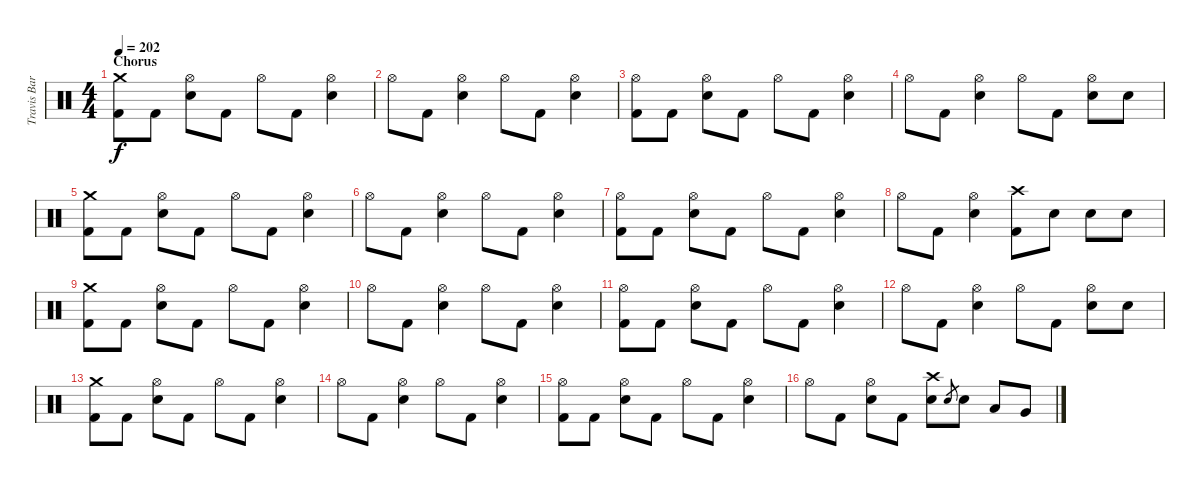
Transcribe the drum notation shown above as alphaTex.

\track ("Travis Barker - Drums" "Travis Bar") {instrument percussion}
\staff {score}
\articulation defaults
\ts (4 4)
\section ("" "Chorus")
\tempo 202
\clef neutral
\ks c
("Crash medium (hit)" "Kick (hit) 2").8{dy f} "Kick (hit) 2".8 ("Hi-Hat (open)" "Electric Snare (hit)").8 "Kick (hit) 2".8 "Hi-Hat (open)".8 "Kick (hit) 2".8 ("Hi-Hat (open)" "Electric Snare (hit)").4 |
"Hi-Hat (open)".8 "Kick (hit) 2".8 ("Hi-Hat (open)" "Electric Snare (hit)").4 "Hi-Hat (open)".8 "Kick (hit) 2".8 ("Hi-Hat (open)" "Electric Snare (hit)").4 |
("Hi-Hat (open)" "Kick (hit) 2").8 "Kick (hit) 2".8 ("Hi-Hat (open)" "Electric Snare (hit)").8 "Kick (hit) 2".8 "Hi-Hat (open)".8 "Kick (hit) 2".8 ("Hi-Hat (open)" "Electric Snare (hit)").4 |
"Hi-Hat (open)".8 "Kick (hit) 2".8 ("Hi-Hat (open)" "Electric Snare (hit)").4 "Hi-Hat (open)".8 "Kick (hit) 2".8 ("Hi-Hat (open)" "Electric Snare (hit)").8 "Electric Snare (hit)".8 |
("Crash medium (hit)" "Kick (hit) 2").8 "Kick (hit) 2".8 ("Hi-Hat (open)" "Electric Snare (hit)").8 "Kick (hit) 2".8 "Hi-Hat (open)".8 "Kick (hit) 2".8 ("Hi-Hat (open)" "Electric Snare (hit)").4 |
"Hi-Hat (open)".8 "Kick (hit) 2".8 ("Hi-Hat (open)" "Electric Snare (hit)").4 "Hi-Hat (open)".8 "Kick (hit) 2".8 ("Hi-Hat (open)" "Electric Snare (hit)").4 |
("Hi-Hat (open)" "Kick (hit) 2").8 "Kick (hit) 2".8 ("Hi-Hat (open)" "Electric Snare (hit)").8 "Kick (hit) 2".8 "Hi-Hat (open)".8 "Kick (hit) 2".8 ("Hi-Hat (open)" "Electric Snare (hit)").4 |
"Hi-Hat (open)".8 "Kick (hit) 2".8 ("Hi-Hat (open)" "Electric Snare (hit)").4 ("Crash high (hit)" "Kick (hit) 2").8 "Electric Snare (hit)".8 "Electric Snare (hit)".8 "Electric Snare (hit)".8 |
("Crash medium (hit)" "Kick (hit) 2").8 "Kick (hit) 2".8 ("Hi-Hat (open)" "Electric Snare (hit)").8 "Kick (hit) 2".8 "Hi-Hat (open)".8 "Kick (hit) 2".8 ("Hi-Hat (open)" "Electric Snare (hit)").4 |
"Hi-Hat (open)".8 "Kick (hit) 2".8 ("Hi-Hat (open)" "Electric Snare (hit)").4 "Hi-Hat (open)".8 "Kick (hit) 2".8 ("Hi-Hat (open)" "Electric Snare (hit)").4 |
("Hi-Hat (open)" "Kick (hit) 2").8 "Kick (hit) 2".8 ("Hi-Hat (open)" "Electric Snare (hit)").8 "Kick (hit) 2".8 "Hi-Hat (open)".8 "Kick (hit) 2".8 ("Hi-Hat (open)" "Electric Snare (hit)").4 |
"Hi-Hat (open)".8 "Kick (hit) 2".8 ("Hi-Hat (open)" "Electric Snare (hit)").4 "Hi-Hat (open)".8 "Kick (hit) 2".8 ("Hi-Hat (open)" "Electric Snare (hit)").8 "Electric Snare (hit)".8 |
("Crash medium (hit)" "Kick (hit) 2").8 "Kick (hit) 2".8 ("Hi-Hat (open)" "Electric Snare (hit)").8 "Kick (hit) 2".8 "Hi-Hat (open)".8 "Kick (hit) 2".8 ("Hi-Hat (open)" "Electric Snare (hit)").4 |
"Hi-Hat (open)".8 "Kick (hit) 2".8 ("Hi-Hat (open)" "Electric Snare (hit)").4 "Hi-Hat (open)".8 "Kick (hit) 2".8 ("Hi-Hat (open)" "Electric Snare (hit)").4 |
("Hi-Hat (open)" "Kick (hit) 2").8 "Kick (hit) 2".8 ("Hi-Hat (open)" "Electric Snare (hit)").8 "Kick (hit) 2".8 "Hi-Hat (open)".8 "Kick (hit) 2".8 ("Hi-Hat (open)" "Electric Snare (hit)").4 |
"Hi-Hat (open)".8 "Kick (hit) 2".8 ("Hi-Hat (open)" "Electric Snare (hit)").8 "Kick (hit) 2".8 ("Crash high (hit)" "Electric Snare (hit)").8 "Electric Snare (hit)".8{gr} "Electric Snare (hit)".8 "Low Tom (hit)".8 "Very Low Tom (hit)".8
